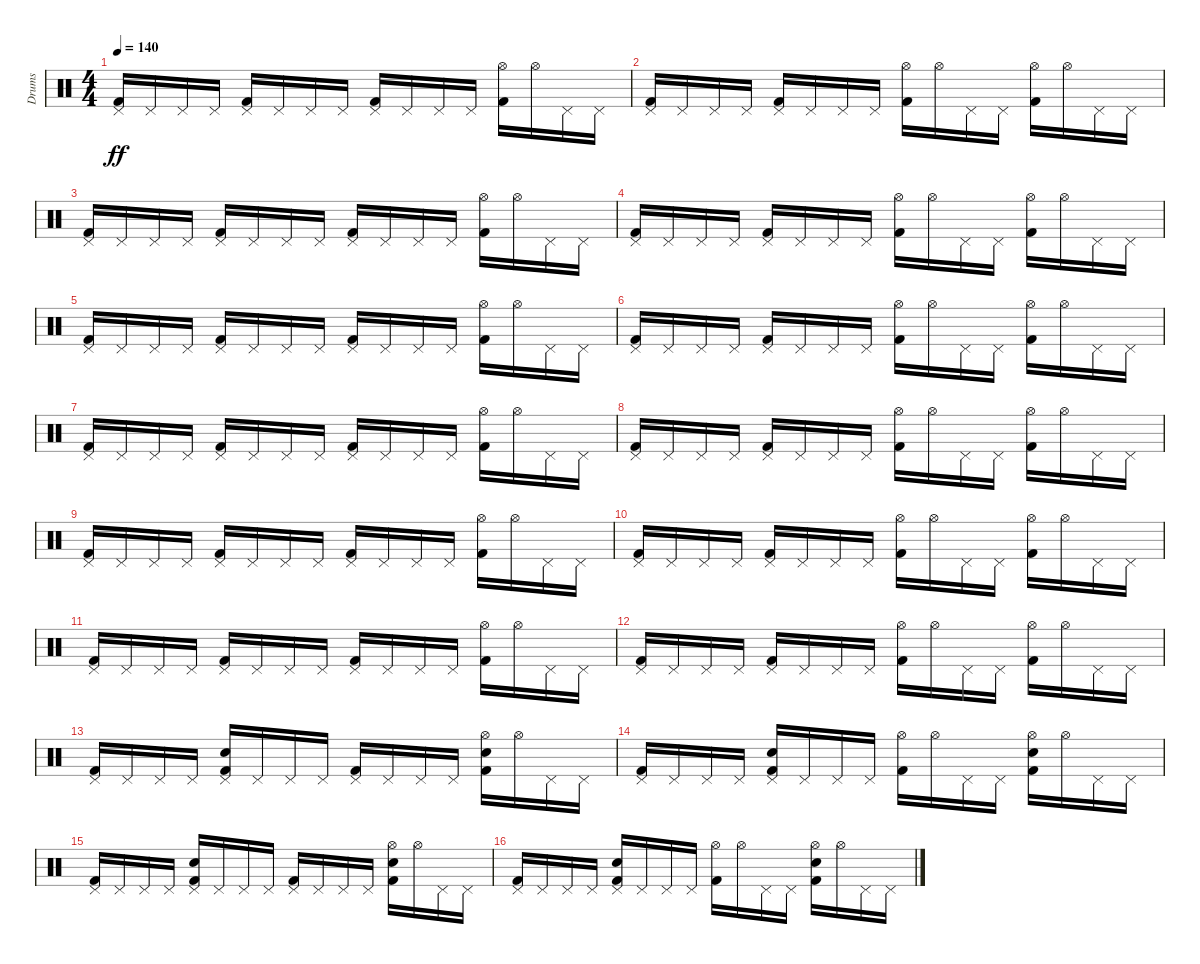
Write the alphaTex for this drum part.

\track ("Drums" "Drums") {instrument percussion}
\staff {score}
\articulation defaults
\ts (4 4)
\tempo 140
\clef neutral
\ks c
("Pedal Hi-Hat (hit)" "Kick (hit) 2").16{dy ff} "Pedal Hi-Hat (hit)".16 "Pedal Hi-Hat (hit)".16 "Pedal Hi-Hat (hit)".16 ("Pedal Hi-Hat (hit)" "Kick (hit) 2").16 "Pedal Hi-Hat (hit)".16 "Pedal Hi-Hat (hit)".16 "Pedal Hi-Hat (hit)".16 ("Pedal Hi-Hat (hit)" "Kick (hit) 2").16 "Pedal Hi-Hat (hit)".16 "Pedal Hi-Hat (hit)".16 "Pedal Hi-Hat (hit)".16 ("Hi-Hat (open)" "Kick (hit) 2").16 "Hi-Hat (open)".16 "Pedal Hi-Hat (hit)".16 "Pedal Hi-Hat (hit)".16 |
("Pedal Hi-Hat (hit)" "Kick (hit) 2").16 "Pedal Hi-Hat (hit)".16 "Pedal Hi-Hat (hit)".16 "Pedal Hi-Hat (hit)".16 ("Pedal Hi-Hat (hit)" "Kick (hit) 2").16 "Pedal Hi-Hat (hit)".16 "Pedal Hi-Hat (hit)".16 "Pedal Hi-Hat (hit)".16 ("Hi-Hat (open)" "Kick (hit) 2").16 "Hi-Hat (open)".16 "Pedal Hi-Hat (hit)".16 "Pedal Hi-Hat (hit)".16 ("Hi-Hat (open)" "Kick (hit) 2").16 "Hi-Hat (open)".16 "Pedal Hi-Hat (hit)".16 "Pedal Hi-Hat (hit)".16 |
("Pedal Hi-Hat (hit)" "Kick (hit) 2").16 "Pedal Hi-Hat (hit)".16 "Pedal Hi-Hat (hit)".16 "Pedal Hi-Hat (hit)".16 ("Pedal Hi-Hat (hit)" "Kick (hit) 2").16 "Pedal Hi-Hat (hit)".16 "Pedal Hi-Hat (hit)".16 "Pedal Hi-Hat (hit)".16 ("Pedal Hi-Hat (hit)" "Kick (hit) 2").16 "Pedal Hi-Hat (hit)".16 "Pedal Hi-Hat (hit)".16 "Pedal Hi-Hat (hit)".16 ("Hi-Hat (open)" "Kick (hit) 2").16 "Hi-Hat (open)".16 "Pedal Hi-Hat (hit)".16 "Pedal Hi-Hat (hit)".16 |
("Pedal Hi-Hat (hit)" "Kick (hit) 2").16 "Pedal Hi-Hat (hit)".16 "Pedal Hi-Hat (hit)".16 "Pedal Hi-Hat (hit)".16 ("Pedal Hi-Hat (hit)" "Kick (hit) 2").16 "Pedal Hi-Hat (hit)".16 "Pedal Hi-Hat (hit)".16 "Pedal Hi-Hat (hit)".16 ("Hi-Hat (open)" "Kick (hit) 2").16 "Hi-Hat (open)".16 "Pedal Hi-Hat (hit)".16 "Pedal Hi-Hat (hit)".16 ("Hi-Hat (open)" "Kick (hit) 2").16 "Hi-Hat (open)".16 "Pedal Hi-Hat (hit)".16 "Pedal Hi-Hat (hit)".16 |
("Pedal Hi-Hat (hit)" "Kick (hit) 2").16 "Pedal Hi-Hat (hit)".16 "Pedal Hi-Hat (hit)".16 "Pedal Hi-Hat (hit)".16 ("Pedal Hi-Hat (hit)" "Kick (hit) 2").16 "Pedal Hi-Hat (hit)".16 "Pedal Hi-Hat (hit)".16 "Pedal Hi-Hat (hit)".16 ("Pedal Hi-Hat (hit)" "Kick (hit) 2").16 "Pedal Hi-Hat (hit)".16 "Pedal Hi-Hat (hit)".16 "Pedal Hi-Hat (hit)".16 ("Hi-Hat (open)" "Kick (hit) 2").16 "Hi-Hat (open)".16 "Pedal Hi-Hat (hit)".16 "Pedal Hi-Hat (hit)".16 |
("Pedal Hi-Hat (hit)" "Kick (hit) 2").16 "Pedal Hi-Hat (hit)".16 "Pedal Hi-Hat (hit)".16 "Pedal Hi-Hat (hit)".16 ("Pedal Hi-Hat (hit)" "Kick (hit) 2").16 "Pedal Hi-Hat (hit)".16 "Pedal Hi-Hat (hit)".16 "Pedal Hi-Hat (hit)".16 ("Hi-Hat (open)" "Kick (hit) 2").16 "Hi-Hat (open)".16 "Pedal Hi-Hat (hit)".16 "Pedal Hi-Hat (hit)".16 ("Hi-Hat (open)" "Kick (hit) 2").16 "Hi-Hat (open)".16 "Pedal Hi-Hat (hit)".16 "Pedal Hi-Hat (hit)".16 |
("Pedal Hi-Hat (hit)" "Kick (hit) 2").16 "Pedal Hi-Hat (hit)".16 "Pedal Hi-Hat (hit)".16 "Pedal Hi-Hat (hit)".16 ("Pedal Hi-Hat (hit)" "Kick (hit) 2").16 "Pedal Hi-Hat (hit)".16 "Pedal Hi-Hat (hit)".16 "Pedal Hi-Hat (hit)".16 ("Pedal Hi-Hat (hit)" "Kick (hit) 2").16 "Pedal Hi-Hat (hit)".16 "Pedal Hi-Hat (hit)".16 "Pedal Hi-Hat (hit)".16 ("Hi-Hat (open)" "Kick (hit) 2").16 "Hi-Hat (open)".16 "Pedal Hi-Hat (hit)".16 "Pedal Hi-Hat (hit)".16 |
("Pedal Hi-Hat (hit)" "Kick (hit) 2").16 "Pedal Hi-Hat (hit)".16 "Pedal Hi-Hat (hit)".16 "Pedal Hi-Hat (hit)".16 ("Pedal Hi-Hat (hit)" "Kick (hit) 2").16 "Pedal Hi-Hat (hit)".16 "Pedal Hi-Hat (hit)".16 "Pedal Hi-Hat (hit)".16 ("Hi-Hat (open)" "Kick (hit) 2").16 "Hi-Hat (open)".16 "Pedal Hi-Hat (hit)".16 "Pedal Hi-Hat (hit)".16 ("Hi-Hat (open)" "Kick (hit) 2").16 "Hi-Hat (open)".16 "Pedal Hi-Hat (hit)".16 "Pedal Hi-Hat (hit)".16 |
("Pedal Hi-Hat (hit)" "Kick (hit) 2").16 "Pedal Hi-Hat (hit)".16 "Pedal Hi-Hat (hit)".16 "Pedal Hi-Hat (hit)".16 ("Pedal Hi-Hat (hit)" "Kick (hit) 2").16 "Pedal Hi-Hat (hit)".16 "Pedal Hi-Hat (hit)".16 "Pedal Hi-Hat (hit)".16 ("Pedal Hi-Hat (hit)" "Kick (hit) 2").16 "Pedal Hi-Hat (hit)".16 "Pedal Hi-Hat (hit)".16 "Pedal Hi-Hat (hit)".16 ("Hi-Hat (open)" "Kick (hit) 2").16 "Hi-Hat (open)".16 "Pedal Hi-Hat (hit)".16 "Pedal Hi-Hat (hit)".16 |
("Pedal Hi-Hat (hit)" "Kick (hit) 2").16 "Pedal Hi-Hat (hit)".16 "Pedal Hi-Hat (hit)".16 "Pedal Hi-Hat (hit)".16 ("Pedal Hi-Hat (hit)" "Kick (hit) 2").16 "Pedal Hi-Hat (hit)".16 "Pedal Hi-Hat (hit)".16 "Pedal Hi-Hat (hit)".16 ("Hi-Hat (open)" "Kick (hit) 2").16 "Hi-Hat (open)".16 "Pedal Hi-Hat (hit)".16 "Pedal Hi-Hat (hit)".16 ("Hi-Hat (open)" "Kick (hit) 2").16 "Hi-Hat (open)".16 "Pedal Hi-Hat (hit)".16 "Pedal Hi-Hat (hit)".16 |
("Pedal Hi-Hat (hit)" "Kick (hit) 2").16 "Pedal Hi-Hat (hit)".16 "Pedal Hi-Hat (hit)".16 "Pedal Hi-Hat (hit)".16 ("Pedal Hi-Hat (hit)" "Kick (hit) 2").16 "Pedal Hi-Hat (hit)".16 "Pedal Hi-Hat (hit)".16 "Pedal Hi-Hat (hit)".16 ("Pedal Hi-Hat (hit)" "Kick (hit) 2").16 "Pedal Hi-Hat (hit)".16 "Pedal Hi-Hat (hit)".16 "Pedal Hi-Hat (hit)".16 ("Hi-Hat (open)" "Kick (hit) 2").16 "Hi-Hat (open)".16 "Pedal Hi-Hat (hit)".16 "Pedal Hi-Hat (hit)".16 |
("Pedal Hi-Hat (hit)" "Kick (hit) 2").16 "Pedal Hi-Hat (hit)".16 "Pedal Hi-Hat (hit)".16 "Pedal Hi-Hat (hit)".16 ("Pedal Hi-Hat (hit)" "Kick (hit) 2").16 "Pedal Hi-Hat (hit)".16 "Pedal Hi-Hat (hit)".16 "Pedal Hi-Hat (hit)".16 ("Hi-Hat (open)" "Kick (hit) 2").16 "Hi-Hat (open)".16 "Pedal Hi-Hat (hit)".16 "Pedal Hi-Hat (hit)".16 ("Hi-Hat (open)" "Kick (hit) 2").16 "Hi-Hat (open)".16 "Pedal Hi-Hat (hit)".16 "Pedal Hi-Hat (hit)".16 |
("Pedal Hi-Hat (hit)" "Kick (hit) 2").16 "Pedal Hi-Hat (hit)".16 "Pedal Hi-Hat (hit)".16 "Pedal Hi-Hat (hit)".16 ("Pedal Hi-Hat (hit)" "Kick (hit) 2" "Electric Snare (hit)").16 "Pedal Hi-Hat (hit)".16 "Pedal Hi-Hat (hit)".16 "Pedal Hi-Hat (hit)".16 ("Pedal Hi-Hat (hit)" "Kick (hit) 2").16 "Pedal Hi-Hat (hit)".16 "Pedal Hi-Hat (hit)".16 "Pedal Hi-Hat (hit)".16 ("Hi-Hat (open)" "Kick (hit) 2" "Electric Snare (hit)").16 "Hi-Hat (open)".16 "Pedal Hi-Hat (hit)".16 "Pedal Hi-Hat (hit)".16 |
("Pedal Hi-Hat (hit)" "Kick (hit) 2").16 "Pedal Hi-Hat (hit)".16 "Pedal Hi-Hat (hit)".16 "Pedal Hi-Hat (hit)".16 ("Pedal Hi-Hat (hit)" "Kick (hit) 2" "Electric Snare (hit)").16 "Pedal Hi-Hat (hit)".16 "Pedal Hi-Hat (hit)".16 "Pedal Hi-Hat (hit)".16 ("Hi-Hat (open)" "Kick (hit) 2").16 "Hi-Hat (open)".16 "Pedal Hi-Hat (hit)".16 "Pedal Hi-Hat (hit)".16 ("Hi-Hat (open)" "Kick (hit) 2" "Electric Snare (hit)").16 "Hi-Hat (open)".16 "Pedal Hi-Hat (hit)".16 "Pedal Hi-Hat (hit)".16 |
("Pedal Hi-Hat (hit)" "Kick (hit) 2").16 "Pedal Hi-Hat (hit)".16 "Pedal Hi-Hat (hit)".16 "Pedal Hi-Hat (hit)".16 ("Pedal Hi-Hat (hit)" "Kick (hit) 2" "Electric Snare (hit)").16 "Pedal Hi-Hat (hit)".16 "Pedal Hi-Hat (hit)".16 "Pedal Hi-Hat (hit)".16 ("Pedal Hi-Hat (hit)" "Kick (hit) 2").16 "Pedal Hi-Hat (hit)".16 "Pedal Hi-Hat (hit)".16 "Pedal Hi-Hat (hit)".16 ("Hi-Hat (open)" "Kick (hit) 2" "Electric Snare (hit)").16 "Hi-Hat (open)".16 "Pedal Hi-Hat (hit)".16 "Pedal Hi-Hat (hit)".16 |
("Pedal Hi-Hat (hit)" "Kick (hit) 2").16 "Pedal Hi-Hat (hit)".16 "Pedal Hi-Hat (hit)".16 "Pedal Hi-Hat (hit)".16 ("Pedal Hi-Hat (hit)" "Kick (hit) 2" "Electric Snare (hit)").16 "Pedal Hi-Hat (hit)".16 "Pedal Hi-Hat (hit)".16 "Pedal Hi-Hat (hit)".16 ("Hi-Hat (open)" "Kick (hit) 2").16 "Hi-Hat (open)".16 "Pedal Hi-Hat (hit)".16 "Pedal Hi-Hat (hit)".16 ("Hi-Hat (open)" "Kick (hit) 2" "Electric Snare (hit)").16 "Hi-Hat (open)".16 "Pedal Hi-Hat (hit)".16 "Pedal Hi-Hat (hit)".16
